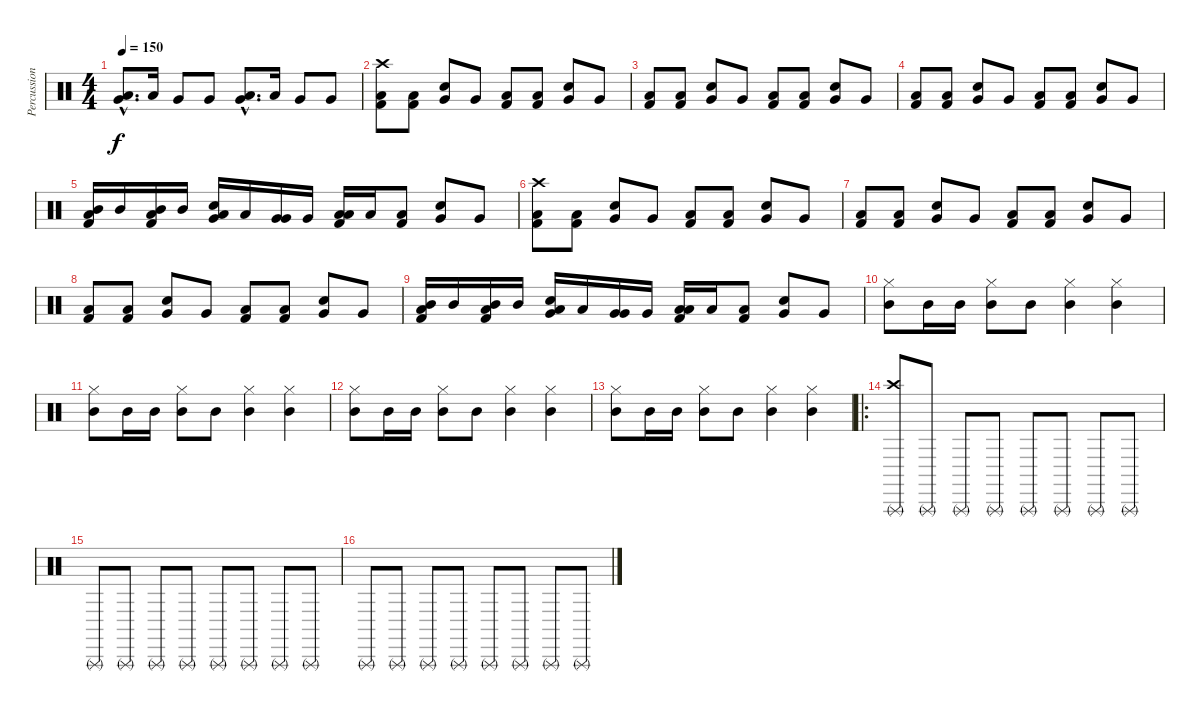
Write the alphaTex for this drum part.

\track ("Percussions" "Percussion") {instrument percussion}
\staff {score}
\articulation defaults
\ts (4 4)
\tempo 150
\clef neutral
\ks c
("Very Low Tom (hit)"{hac} "Low Floor Tom (hit)"{hac}).8{d dy f} "Low Floor Tom (hit)".16 "Very Low Tom (hit)".8 "Very Low Tom (hit)".8 ("Very Low Tom (hit)"{hac} "Low Floor Tom (hit)"{hac}).8{d} "Low Floor Tom (hit)".16 "Very Low Tom (hit)".8 "Very Low Tom (hit)".8 |
("Kick (hit) 2" "Low Floor Tom (hit)" "Crash high (hit)").8 ("Kick (hit) 2" "Low Floor Tom (hit)").8 ("Snare (hit) 2" "Very Low Tom (hit)").8 "Very Low Tom (hit)".8 ("Kick (hit) 2" "Low Floor Tom (hit)").8 ("Kick (hit) 2" "Low Floor Tom (hit)").8 ("Snare (hit) 2" "Very Low Tom (hit)").8 "Very Low Tom (hit)".8 |
("Kick (hit) 2" "Low Floor Tom (hit)").8 ("Kick (hit) 2" "Low Floor Tom (hit)").8 ("Snare (hit) 2" "Very Low Tom (hit)").8 "Very Low Tom (hit)".8 ("Kick (hit) 2" "Low Floor Tom (hit)").8 ("Kick (hit) 2" "Low Floor Tom (hit)").8 ("Snare (hit) 2" "Very Low Tom (hit)").8 "Very Low Tom (hit)".8 |
("Kick (hit) 2" "Low Floor Tom (hit)").8 ("Kick (hit) 2" "Low Floor Tom (hit)").8 ("Snare (hit) 2" "Very Low Tom (hit)").8 "Very Low Tom (hit)".8 ("Kick (hit) 2" "Low Floor Tom (hit)").8 ("Kick (hit) 2" "Low Floor Tom (hit)").8 ("Snare (hit) 2" "Very Low Tom (hit)").8 "Very Low Tom (hit)".8 |
("Kick (hit) 2" "Low Floor Tom (hit)" "Mid Tom (hit)").16 "Mid Tom (hit)".16 ("Kick (hit) 2" "Low Floor Tom (hit)" "Mid Tom (hit)").16 "Mid Tom (hit)".16 ("Snare (hit) 2" "Very Low Tom (hit)" "Low Tom (hit)").16 "Low Tom (hit)".16 ("Very Low Tom (hit)" "Very Low Tom (hit)").16 "Very Low Tom (hit)".16 ("Kick (hit) 2" "Low Floor Tom (hit)" "Low Floor Tom (hit)").16 "Low Floor Tom (hit)".16 ("Kick (hit) 2" "Low Floor Tom (hit)").8 ("Snare (hit) 2" "Very Low Tom (hit)").8 "Very Low Tom (hit)".8 |
("Kick (hit) 2" "Low Floor Tom (hit)" "Crash high (hit)").8 ("Kick (hit) 2" "Low Floor Tom (hit)").8 ("Snare (hit) 2" "Very Low Tom (hit)").8 "Very Low Tom (hit)".8 ("Kick (hit) 2" "Low Floor Tom (hit)").8 ("Kick (hit) 2" "Low Floor Tom (hit)").8 ("Snare (hit) 2" "Very Low Tom (hit)").8 "Very Low Tom (hit)".8 |
("Kick (hit) 2" "Low Floor Tom (hit)").8 ("Kick (hit) 2" "Low Floor Tom (hit)").8 ("Snare (hit) 2" "Very Low Tom (hit)").8 "Very Low Tom (hit)".8 ("Kick (hit) 2" "Low Floor Tom (hit)").8 ("Kick (hit) 2" "Low Floor Tom (hit)").8 ("Snare (hit) 2" "Very Low Tom (hit)").8 "Very Low Tom (hit)".8 |
("Kick (hit) 2" "Low Floor Tom (hit)").8 ("Kick (hit) 2" "Low Floor Tom (hit)").8 ("Snare (hit) 2" "Very Low Tom (hit)").8 "Very Low Tom (hit)".8 ("Kick (hit) 2" "Low Floor Tom (hit)").8 ("Kick (hit) 2" "Low Floor Tom (hit)").8 ("Snare (hit) 2" "Very Low Tom (hit)").8 "Very Low Tom (hit)".8 |
("Kick (hit) 2" "Low Floor Tom (hit)" "Mid Tom (hit)").16 "Mid Tom (hit)".16 ("Kick (hit) 2" "Low Floor Tom (hit)" "Mid Tom (hit)").16 "Mid Tom (hit)".16 ("Snare (hit) 2" "Very Low Tom (hit)" "Low Tom (hit)").16 "Low Tom (hit)".16 ("Very Low Tom (hit)" "Very Low Tom (hit)").16 "Very Low Tom (hit)".16 ("Kick (hit) 2" "Low Floor Tom (hit)" "Low Floor Tom (hit)").16 "Low Floor Tom (hit)".16 ("Kick (hit) 2" "Low Floor Tom (hit)").8 ("Snare (hit) 2" "Very Low Tom (hit)").8 "Very Low Tom (hit)".8 |
("Mid Tom (hit)" "Hi-Hat (closed)").8 "Mid Tom (hit)".16 "Mid Tom (hit)".16 ("Mid Tom (hit)" "Hi-Hat (closed)").8 "Mid Tom (hit)".8 ("Mid Tom (hit)" "Hi-Hat (closed)").4 ("Mid Tom (hit)" "Hi-Hat (closed)").4 |
("Mid Tom (hit)" "Hi-Hat (closed)").8 "Mid Tom (hit)".16 "Mid Tom (hit)".16 ("Mid Tom (hit)" "Hi-Hat (closed)").8 "Mid Tom (hit)".8 ("Mid Tom (hit)" "Hi-Hat (closed)").4 ("Mid Tom (hit)" "Hi-Hat (closed)").4 |
("Mid Tom (hit)" "Hi-Hat (closed)").8 "Mid Tom (hit)".16 "Mid Tom (hit)".16 ("Mid Tom (hit)" "Hi-Hat (closed)").8 "Mid Tom (hit)".8 ("Mid Tom (hit)" "Hi-Hat (closed)").4 ("Mid Tom (hit)" "Hi-Hat (closed)").4 |
("Mid Tom (hit)" "Hi-Hat (closed)").8 "Mid Tom (hit)".16 "Mid Tom (hit)".16 ("Mid Tom (hit)" "Hi-Hat (closed)").8 "Mid Tom (hit)".8 ("Mid Tom (hit)" "Hi-Hat (closed)").4 ("Mid Tom (hit)" "Hi-Hat (closed)").4 |
\ro
("Triangle (rnute)" "Crash high (hit)").8 "Triangle (rnute)".8 "Triangle (rnute)".8 "Triangle (rnute)".8 "Triangle (rnute)".8 "Triangle (rnute)".8 "Triangle (rnute)".8 "Triangle (rnute)".8 |
"Triangle (rnute)".8 "Triangle (rnute)".8 "Triangle (rnute)".8 "Triangle (rnute)".8 "Triangle (rnute)".8 "Triangle (rnute)".8 "Triangle (rnute)".8 "Triangle (rnute)".8 |
"Triangle (rnute)".8 "Triangle (rnute)".8 "Triangle (rnute)".8 "Triangle (rnute)".8 "Triangle (rnute)".8 "Triangle (rnute)".8 "Triangle (rnute)".8 "Triangle (rnute)".8
